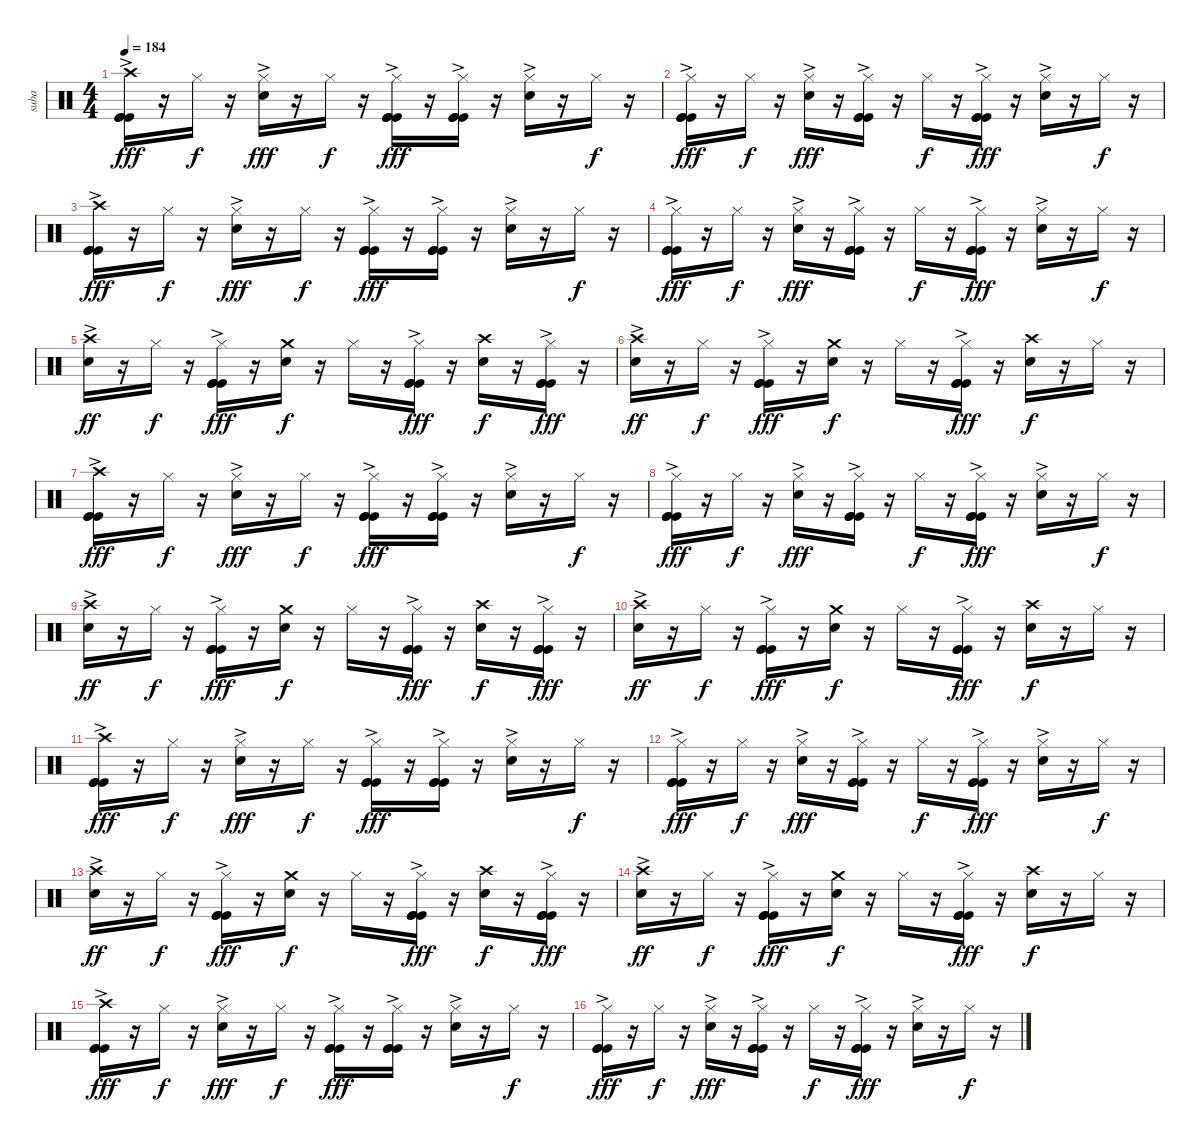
\track ("suba" "suba") {instrument percussion}
\staff {score}
\articulation defaults
\ts (4 4)
\tempo 184
\clef neutral
\ks c
("Crash high (hit)"{ac} "Kick (hit)"{ac} "Kick (hit)"{ac} "Kick (hit)"{ac}).16{dy fff} r.16 "Hi-Hat (closed)".16{dy f} r.16 ("Hi-Hat (closed)" "Snare (hit) 2"{ac}).16{dy fff} r.16 "Hi-Hat (closed)".16{dy f} r.16 ("Hi-Hat (closed)" "Kick (hit)"{ac} "Kick (hit)"{ac} "Kick (hit)"{ac}).16{dy fff} r.16 ("Hi-Hat (closed)" "Kick (hit)"{ac} "Kick (hit)"{ac} "Kick (hit)"{ac}).16 r.16 ("Hi-Hat (closed)" "Snare (hit) 2"{ac}).16 r.16 "Hi-Hat (closed)".16{dy f} r.16 |
("Hi-Hat (closed)" "Kick (hit)"{ac} "Kick (hit)"{ac} "Kick (hit)"{ac}).16{dy fff} r.16 "Hi-Hat (closed)".16{dy f} r.16 ("Hi-Hat (closed)" "Snare (hit) 2"{ac}).16{dy fff} r.16 ("Hi-Hat (closed)" "Kick (hit)"{ac} "Kick (hit)"{ac} "Kick (hit)"{ac}).16 r.16 "Hi-Hat (closed)".16{dy f} r.16 ("Hi-Hat (closed)" "Kick (hit)"{ac} "Kick (hit)"{ac} "Kick (hit)"{ac}).16{dy fff} r.16 ("Hi-Hat (closed)" "Snare (hit) 2"{ac}).16 r.16 "Hi-Hat (closed)".16{dy f} r.16 |
("Crash high (hit)"{ac} "Kick (hit)"{ac} "Kick (hit)"{ac} "Kick (hit)"{ac}).16{dy fff} r.16 "Hi-Hat (closed)".16{dy f} r.16 ("Hi-Hat (closed)" "Snare (hit) 2"{ac}).16{dy fff} r.16 "Hi-Hat (closed)".16{dy f} r.16 ("Hi-Hat (closed)" "Kick (hit)"{ac} "Kick (hit)"{ac} "Kick (hit)"{ac}).16{dy fff} r.16 ("Hi-Hat (closed)" "Kick (hit)"{ac} "Kick (hit)"{ac} "Kick (hit)"{ac}).16 r.16 ("Hi-Hat (closed)" "Snare (hit) 2"{ac}).16 r.16 "Hi-Hat (closed)".16{dy f} r.16 |
("Hi-Hat (closed)" "Kick (hit)"{ac} "Kick (hit)"{ac} "Kick (hit)"{ac}).16{dy fff} r.16 "Hi-Hat (closed)".16{dy f} r.16 ("Hi-Hat (closed)" "Snare (hit) 2"{ac}).16{dy fff} r.16 ("Hi-Hat (closed)" "Kick (hit)"{ac} "Kick (hit)"{ac} "Kick (hit)"{ac}).16 r.16 "Hi-Hat (closed)".16{dy f} r.16 ("Hi-Hat (closed)" "Kick (hit)"{ac} "Kick (hit)"{ac} "Kick (hit)"{ac}).16{dy fff} r.16 ("Hi-Hat (closed)" "Snare (hit) 2"{ac}).16 r.16 "Hi-Hat (closed)".16{dy f} r.16 |
("Crash high (hit)"{ac} "Snare (hit) 2").16{dy ff} r.16 "Hi-Hat (closed)".16{dy f} r.16 ("Hi-Hat (closed)" "Kick (hit)"{ac} "Kick (hit)"{ac} "Kick (hit)"{ac}).16{dy fff} r.16 ("Crash medium (hit)" "Snare (hit) 2").16{dy f} r.16 "Hi-Hat (closed)".16 r.16 ("Hi-Hat (closed)" "Kick (hit)"{ac} "Kick (hit)"{ac} "Kick (hit)"{ac}).16{dy fff} r.16 ("Crash high (hit)" "Snare (hit) 2").16{dy f} r.16 ("Hi-Hat (closed)" "Kick (hit)"{ac} "Kick (hit)"{ac} "Kick (hit)"{ac}).16{dy fff} r.16 |
("Crash high (hit)"{ac} "Snare (hit) 2").16{dy ff} r.16 "Hi-Hat (closed)".16{dy f} r.16 ("Hi-Hat (closed)" "Kick (hit)"{ac} "Kick (hit)"{ac} "Kick (hit)"{ac}).16{dy fff} r.16 ("Crash medium (hit)" "Snare (hit) 2").16{dy f} r.16 "Hi-Hat (closed)".16 r.16 ("Hi-Hat (closed)" "Kick (hit)"{ac} "Kick (hit)"{ac} "Kick (hit)"{ac}).16{dy fff} r.16 ("Crash high (hit)" "Snare (hit) 2").16{dy f} r.16 "Hi-Hat (closed)".16 r.16 |
("Crash high (hit)"{ac} "Kick (hit)"{ac} "Kick (hit)"{ac} "Kick (hit)"{ac}).16{dy fff} r.16 "Hi-Hat (closed)".16{dy f} r.16 ("Hi-Hat (closed)" "Snare (hit) 2"{ac}).16{dy fff} r.16 "Hi-Hat (closed)".16{dy f} r.16 ("Hi-Hat (closed)" "Kick (hit)"{ac} "Kick (hit)"{ac} "Kick (hit)"{ac}).16{dy fff} r.16 ("Hi-Hat (closed)" "Kick (hit)"{ac} "Kick (hit)"{ac} "Kick (hit)"{ac}).16 r.16 ("Hi-Hat (closed)" "Snare (hit) 2"{ac}).16 r.16 "Hi-Hat (closed)".16{dy f} r.16 |
("Hi-Hat (closed)" "Kick (hit)"{ac} "Kick (hit)"{ac} "Kick (hit)"{ac}).16{dy fff} r.16 "Hi-Hat (closed)".16{dy f} r.16 ("Hi-Hat (closed)" "Snare (hit) 2"{ac}).16{dy fff} r.16 ("Hi-Hat (closed)" "Kick (hit)"{ac} "Kick (hit)"{ac} "Kick (hit)"{ac}).16 r.16 "Hi-Hat (closed)".16{dy f} r.16 ("Hi-Hat (closed)" "Kick (hit)"{ac} "Kick (hit)"{ac} "Kick (hit)"{ac}).16{dy fff} r.16 ("Hi-Hat (closed)" "Snare (hit) 2"{ac}).16 r.16 "Hi-Hat (closed)".16{dy f} r.16 |
("Crash high (hit)"{ac} "Snare (hit) 2").16{dy ff} r.16 "Hi-Hat (closed)".16{dy f} r.16 ("Hi-Hat (closed)" "Kick (hit)"{ac} "Kick (hit)"{ac} "Kick (hit)"{ac}).16{dy fff} r.16 ("Crash medium (hit)" "Snare (hit) 2").16{dy f} r.16 "Hi-Hat (closed)".16 r.16 ("Hi-Hat (closed)" "Kick (hit)"{ac} "Kick (hit)"{ac} "Kick (hit)"{ac}).16{dy fff} r.16 ("Crash high (hit)" "Snare (hit) 2").16{dy f} r.16 ("Hi-Hat (closed)" "Kick (hit)"{ac} "Kick (hit)"{ac} "Kick (hit)"{ac}).16{dy fff} r.16 |
("Crash high (hit)"{ac} "Snare (hit) 2").16{dy ff} r.16 "Hi-Hat (closed)".16{dy f} r.16 ("Hi-Hat (closed)" "Kick (hit)"{ac} "Kick (hit)"{ac} "Kick (hit)"{ac}).16{dy fff} r.16 ("Crash medium (hit)" "Snare (hit) 2").16{dy f} r.16 "Hi-Hat (closed)".16 r.16 ("Hi-Hat (closed)" "Kick (hit)"{ac} "Kick (hit)"{ac} "Kick (hit)"{ac}).16{dy fff} r.16 ("Crash high (hit)" "Snare (hit) 2").16{dy f} r.16 "Hi-Hat (closed)".16 r.16 |
("Crash high (hit)"{ac} "Kick (hit)"{ac} "Kick (hit)"{ac} "Kick (hit)"{ac}).16{dy fff} r.16 "Hi-Hat (closed)".16{dy f} r.16 ("Hi-Hat (closed)" "Snare (hit) 2"{ac}).16{dy fff} r.16 "Hi-Hat (closed)".16{dy f} r.16 ("Hi-Hat (closed)" "Kick (hit)"{ac} "Kick (hit)"{ac} "Kick (hit)"{ac}).16{dy fff} r.16 ("Hi-Hat (closed)" "Kick (hit)"{ac} "Kick (hit)"{ac} "Kick (hit)"{ac}).16 r.16 ("Hi-Hat (closed)" "Snare (hit) 2"{ac}).16 r.16 "Hi-Hat (closed)".16{dy f} r.16 |
("Hi-Hat (closed)" "Kick (hit)"{ac} "Kick (hit)"{ac} "Kick (hit)"{ac}).16{dy fff} r.16 "Hi-Hat (closed)".16{dy f} r.16 ("Hi-Hat (closed)" "Snare (hit) 2"{ac}).16{dy fff} r.16 ("Hi-Hat (closed)" "Kick (hit)"{ac} "Kick (hit)"{ac} "Kick (hit)"{ac}).16 r.16 "Hi-Hat (closed)".16{dy f} r.16 ("Hi-Hat (closed)" "Kick (hit)"{ac} "Kick (hit)"{ac} "Kick (hit)"{ac}).16{dy fff} r.16 ("Hi-Hat (closed)" "Snare (hit) 2"{ac}).16 r.16 "Hi-Hat (closed)".16{dy f} r.16 |
("Crash high (hit)"{ac} "Snare (hit) 2").16{dy ff} r.16 "Hi-Hat (closed)".16{dy f} r.16 ("Hi-Hat (closed)" "Kick (hit)"{ac} "Kick (hit)"{ac} "Kick (hit)"{ac}).16{dy fff} r.16 ("Crash medium (hit)" "Snare (hit) 2").16{dy f} r.16 "Hi-Hat (closed)".16 r.16 ("Hi-Hat (closed)" "Kick (hit)"{ac} "Kick (hit)"{ac} "Kick (hit)"{ac}).16{dy fff} r.16 ("Crash high (hit)" "Snare (hit) 2").16{dy f} r.16 ("Hi-Hat (closed)" "Kick (hit)"{ac} "Kick (hit)"{ac} "Kick (hit)"{ac}).16{dy fff} r.16 |
("Crash high (hit)"{ac} "Snare (hit) 2").16{dy ff} r.16 "Hi-Hat (closed)".16{dy f} r.16 ("Hi-Hat (closed)" "Kick (hit)"{ac} "Kick (hit)"{ac} "Kick (hit)"{ac}).16{dy fff} r.16 ("Crash medium (hit)" "Snare (hit) 2").16{dy f} r.16 "Hi-Hat (closed)".16 r.16 ("Hi-Hat (closed)" "Kick (hit)"{ac} "Kick (hit)"{ac} "Kick (hit)"{ac}).16{dy fff} r.16 ("Crash high (hit)" "Snare (hit) 2").16{dy f} r.16 "Hi-Hat (closed)".16 r.16 |
("Crash high (hit)"{ac} "Kick (hit)"{ac} "Kick (hit)"{ac} "Kick (hit)"{ac}).16{dy fff} r.16 "Hi-Hat (closed)".16{dy f} r.16 ("Hi-Hat (closed)" "Snare (hit) 2"{ac}).16{dy fff} r.16 "Hi-Hat (closed)".16{dy f} r.16 ("Hi-Hat (closed)" "Kick (hit)"{ac} "Kick (hit)"{ac} "Kick (hit)"{ac}).16{dy fff} r.16 ("Hi-Hat (closed)" "Kick (hit)"{ac} "Kick (hit)"{ac} "Kick (hit)"{ac}).16 r.16 ("Hi-Hat (closed)" "Snare (hit) 2"{ac}).16 r.16 "Hi-Hat (closed)".16{dy f} r.16 |
("Hi-Hat (closed)" "Kick (hit)"{ac} "Kick (hit)"{ac} "Kick (hit)"{ac}).16{dy fff} r.16 "Hi-Hat (closed)".16{dy f} r.16 ("Hi-Hat (closed)" "Snare (hit) 2"{ac}).16{dy fff} r.16 ("Hi-Hat (closed)" "Kick (hit)"{ac} "Kick (hit)"{ac} "Kick (hit)"{ac}).16 r.16 "Hi-Hat (closed)".16{dy f} r.16 ("Hi-Hat (closed)" "Kick (hit)"{ac} "Kick (hit)"{ac} "Kick (hit)"{ac}).16{dy fff} r.16 ("Hi-Hat (closed)" "Snare (hit) 2"{ac}).16 r.16 "Hi-Hat (closed)".16{dy f} r.16
